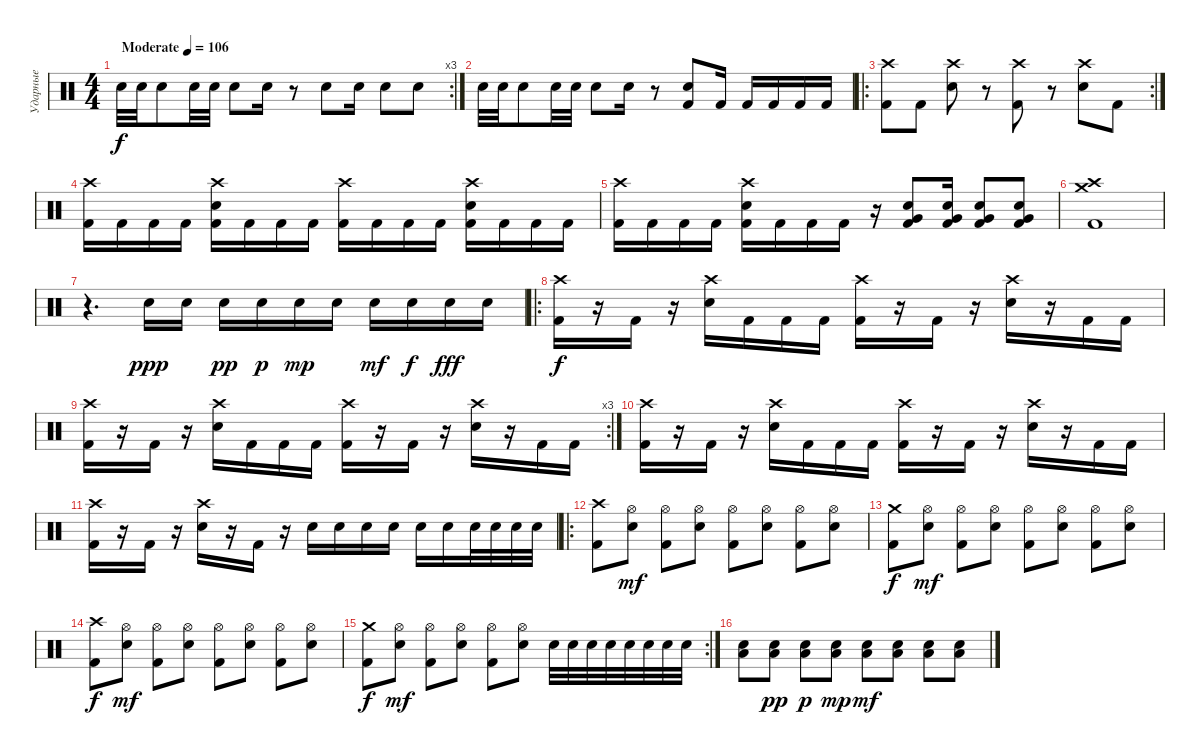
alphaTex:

\track ("Ударные" "Ударные") {instrument percussion}
\staff {score}
\articulation defaults
\rc 3
\ts (4 4)
\tempo (106 "Moderate")
\clef neutral
\ks c "Electric Snare (hit)".32{dy f} "Electric Snare (hit)".32 "Electric Snare (hit)".8 "Electric Snare (hit)".32 "Electric Snare (hit)".32 "Electric Snare (hit)".8 "Electric Snare (hit)".16
r.8 "Electric Snare (hit)".8 "Electric Snare (hit)".16 "Electric Snare (hit)".8 "Electric Snare (hit)".8 |
"Electric Snare (hit)".32 "Electric Snare (hit)".32 "Electric Snare (hit)".8 "Electric Snare (hit)".32 "Electric Snare (hit)".32 "Electric Snare (hit)".8 "Electric Snare (hit)".16 r.8 ("Kick (hit) 2" "Electric Snare (hit)").8 "Kick (hit) 2".16 "Kick (hit) 2".16 "Kick (hit) 2".16 "Kick (hit) 2".16 "Kick (hit) 2".16 |
\ro
\rc 2
("Crash high (hit)" "Kick (hit) 2").8 "Kick (hit) 2".8 ("Crash high (hit)" "Electric Snare (hit)").8 r.8 ("Crash high (hit)" "Kick (hit) 2").8 r.8 ("Crash high (hit)" "Electric Snare (hit)").8 "Kick (hit) 2".8 |
("Kick (hit) 2" "Crash high (hit)").16 "Kick (hit) 2".16 "Kick (hit) 2".16 "Kick (hit) 2".16 ("Kick (hit) 2" "Crash high (hit)" "Electric Snare (hit)").16 "Kick (hit) 2".16 "Kick (hit) 2".16 "Kick (hit) 2".16 ("Kick (hit) 2" "Crash high (hit)").16 "Kick (hit) 2".16 "Kick (hit) 2".16 "Kick (hit) 2".16 ("Kick (hit) 2" "Crash high (hit)" "Electric Snare (hit)").16 "Kick (hit) 2".16 "Kick (hit) 2".16 "Kick (hit) 2".16 |
("Kick (hit) 2" "Crash high (hit)").16 "Kick (hit) 2".16 "Kick (hit) 2".16 "Kick (hit) 2".16 ("Kick (hit) 2" "Crash high (hit)" "Electric Snare (hit)").16 "Kick (hit) 2".16 "Kick (hit) 2".16 "Kick (hit) 2".16 r.16 ("Electric Snare (hit)" "Very Low Tom (hit)" "Kick (hit) 2").8 ("Electric Snare (hit)" "Very Low Tom (hit)" "Kick (hit) 2").16 ("Electric Snare (hit)" "Very Low Tom (hit)" "Kick (hit) 2").8 ("Electric Snare (hit)" "Very Low Tom (hit)" "Kick (hit) 2").8 |
("Crash medium (hit)" "Crash high (hit)" "Kick (hit) 2").1 |
r.4{d} "Electric Snare (hit)".16{dy ppp} "Electric Snare (hit)".16 "Electric Snare (hit)".16{dy pp} "Electric Snare (hit)".16{dy p} "Electric Snare (hit)".16{dy mp} "Electric Snare (hit)".16 "Electric Snare (hit)".16{dy mf} "Electric Snare (hit)".16{dy f} "Electric Snare (hit)".16{dy fff} "Electric Snare (hit)".16 |
\ro
("Crash high (hit)" "Kick (hit) 2").16{dy f} r.16 "Kick (hit) 2".16 r.16 ("Crash high (hit)" "Electric Snare (hit)").16 "Kick (hit) 2".16 "Kick (hit) 2".16 "Kick (hit) 2".16 ("Crash high (hit)" "Kick (hit) 2").16 r.16 "Kick (hit) 2".16 r.16 ("Crash high (hit)" "Electric Snare (hit)").16 r.16 "Kick (hit) 2".16 "Kick (hit) 2".16 |
\rc 3
("Crash high (hit)" "Kick (hit) 2").16 r.16 "Kick (hit) 2".16 r.16 ("Crash high (hit)" "Electric Snare (hit)").16 "Kick (hit) 2".16 "Kick (hit) 2".16 "Kick (hit) 2".16 ("Crash high (hit)" "Kick (hit) 2").16 r.16 "Kick (hit) 2".16 r.16 ("Crash high (hit)" "Electric Snare (hit)").16 r.16 "Kick (hit) 2".16 "Kick (hit) 2".16 |
("Crash high (hit)" "Kick (hit) 2").16 r.16 "Kick (hit) 2".16 r.16 ("Crash high (hit)" "Electric Snare (hit)").16 "Kick (hit) 2".16 "Kick (hit) 2".16 "Kick (hit) 2".16 ("Crash high (hit)" "Kick (hit) 2").16 r.16 "Kick (hit) 2".16 r.16 ("Crash high (hit)" "Electric Snare (hit)").16 r.16 "Kick (hit) 2".16 "Kick (hit) 2".16 |
("Crash high (hit)" "Kick (hit) 2").16 r.16 "Kick (hit) 2".16 r.16 ("Crash high (hit)" "Electric Snare (hit)").16 r.16 "Kick (hit) 2".16 r.16 "Electric Snare (hit)".16 "Electric Snare (hit)".16 "Electric Snare (hit)".16 "Electric Snare (hit)".16 "Electric Snare (hit)".16 "Electric Snare (hit)".16 "Electric Snare (hit)".32 "Electric Snare (hit)".32 "Electric Snare (hit)".32 "Electric Snare (hit)".32 |
\ro
("Crash high (hit)" "Kick (hit) 2").8 ("Hi-Hat (open)" "Electric Snare (hit)").8{dy mf} ("Hi-Hat (open)" "Kick (hit) 2").8 ("Hi-Hat (open)" "Electric Snare (hit)").8 ("Hi-Hat (open)" "Kick (hit) 2").8 ("Hi-Hat (open)" "Electric Snare (hit)").8 ("Hi-Hat (open)" "Kick (hit) 2").8 ("Hi-Hat (open)" "Electric Snare (hit)").8 |
("Crash medium (hit)" "Kick (hit) 2").8{dy f} ("Hi-Hat (open)" "Electric Snare (hit)").8{dy mf} ("Hi-Hat (open)" "Kick (hit) 2").8 ("Hi-Hat (open)" "Electric Snare (hit)").8 ("Hi-Hat (open)" "Kick (hit) 2").8 ("Hi-Hat (open)" "Electric Snare (hit)").8 ("Hi-Hat (open)" "Kick (hit) 2").8 ("Hi-Hat (open)" "Electric Snare (hit)").8 |
("Crash high (hit)" "Kick (hit) 2").8{dy f} ("Hi-Hat (open)" "Electric Snare (hit)").8{dy mf} ("Hi-Hat (open)" "Kick (hit) 2").8 ("Hi-Hat (open)" "Electric Snare (hit)").8 ("Hi-Hat (open)" "Kick (hit) 2").8 ("Hi-Hat (open)" "Electric Snare (hit)").8 ("Hi-Hat (open)" "Kick (hit) 2").8 ("Hi-Hat (open)" "Electric Snare (hit)").8 |
\rc 2
("Crash medium (hit)" "Kick (hit) 2").8{dy f} ("Hi-Hat (open)" "Electric Snare (hit)").8{dy mf} ("Hi-Hat (open)" "Kick (hit) 2").8 ("Hi-Hat (open)" "Electric Snare (hit)").8 ("Hi-Hat (open)" "Kick (hit) 2").8 ("Hi-Hat (open)" "Electric Snare (hit)").8 "Electric Snare (hit)".32 "Electric Snare (hit)".32 "Electric Snare (hit)".32 "Electric Snare (hit)".32 "Electric Snare (hit)".32 "Electric Snare (hit)".32 "Electric Snare (hit)".32 "Electric Snare (hit)".32 |
("Electric Snare (hit)" "Low Floor Tom (hit)").8 ("Low Floor Tom (hit)" "Electric Snare (hit)").8{dy pp} ("Low Floor Tom (hit)" "Electric Snare (hit)").8{dy p} ("Low Floor Tom (hit)" "Electric Snare (hit)").8{dy mp} ("Low Floor Tom (hit)" "Electric Snare (hit)").8{dy mf} ("Low Floor Tom (hit)" "Electric Snare (hit)").8 ("Low Floor Tom (hit)" "Electric Snare (hit)").8 ("Low Floor Tom (hit)" "Electric Snare (hit)").8
